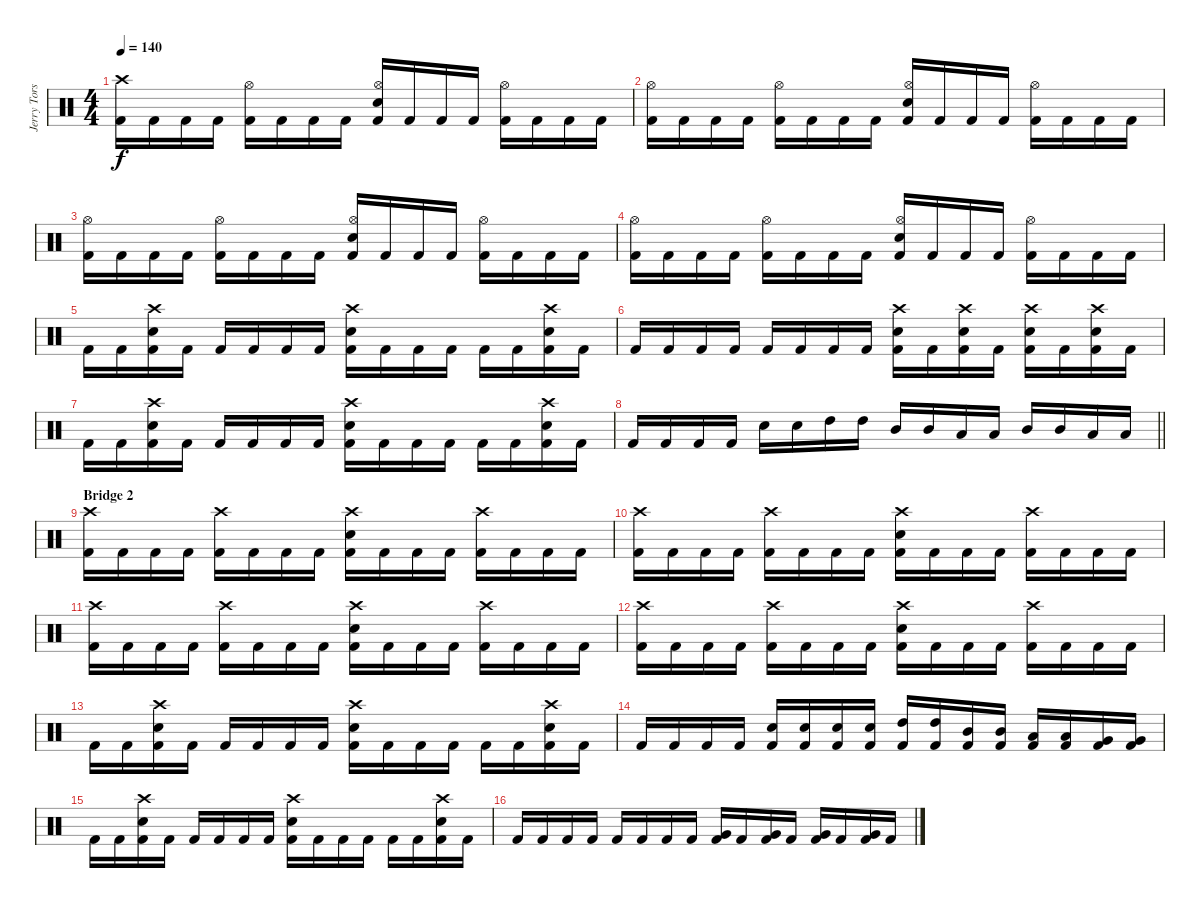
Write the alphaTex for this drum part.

\track ("Jerry Torstensson" "Jerry Tors") {instrument percussion}
\staff {score}
\articulation defaults
\ts (4 4)
\tempo 140
\clef neutral
\ks c
("Crash high (hit)" "Kick (hit) 2").16{dy f} "Kick (hit) 2".16 "Kick (hit) 2".16 "Kick (hit) 2".16 ("Hi-Hat (open)" "Kick (hit) 2").16 "Kick (hit) 2".16 "Kick (hit) 2".16 "Kick (hit) 2".16 ("Hi-Hat (open)" "Snare (hit) 2" "Kick (hit) 2").16 "Kick (hit) 2".16 "Kick (hit) 2".16 "Kick (hit) 2".16 ("Hi-Hat (open)" "Kick (hit) 2").16 "Kick (hit) 2".16 "Kick (hit) 2".16 "Kick (hit) 2".16 |
("Hi-Hat (open)" "Kick (hit) 2").16 "Kick (hit) 2".16 "Kick (hit) 2".16 "Kick (hit) 2".16 ("Hi-Hat (open)" "Kick (hit) 2").16 "Kick (hit) 2".16 "Kick (hit) 2".16 "Kick (hit) 2".16 ("Hi-Hat (open)" "Snare (hit) 2" "Kick (hit) 2").16 "Kick (hit) 2".16 "Kick (hit) 2".16 "Kick (hit) 2".16 ("Hi-Hat (open)" "Kick (hit) 2").16 "Kick (hit) 2".16 "Kick (hit) 2".16 "Kick (hit) 2".16 |
("Hi-Hat (open)" "Kick (hit) 2").16 "Kick (hit) 2".16 "Kick (hit) 2".16 "Kick (hit) 2".16 ("Hi-Hat (open)" "Kick (hit) 2").16 "Kick (hit) 2".16 "Kick (hit) 2".16 "Kick (hit) 2".16 ("Hi-Hat (open)" "Snare (hit) 2" "Kick (hit) 2").16 "Kick (hit) 2".16 "Kick (hit) 2".16 "Kick (hit) 2".16 ("Hi-Hat (open)" "Kick (hit) 2").16 "Kick (hit) 2".16 "Kick (hit) 2".16 "Kick (hit) 2".16 |
("Hi-Hat (open)" "Kick (hit) 2").16 "Kick (hit) 2".16 "Kick (hit) 2".16 "Kick (hit) 2".16 ("Hi-Hat (open)" "Kick (hit) 2").16 "Kick (hit) 2".16 "Kick (hit) 2".16 "Kick (hit) 2".16 ("Hi-Hat (open)" "Snare (hit) 2" "Kick (hit) 2").16 "Kick (hit) 2".16 "Kick (hit) 2".16 "Kick (hit) 2".16 ("Hi-Hat (open)" "Kick (hit) 2").16 "Kick (hit) 2".16 "Kick (hit) 2".16 "Kick (hit) 2".16 |
"Kick (hit) 2".16 "Kick (hit) 2".16 ("Crash high (hit)" "Snare (hit) 2" "Kick (hit) 2").16 "Kick (hit) 2".16 "Kick (hit) 2".16 "Kick (hit) 2".16 "Kick (hit) 2".16 "Kick (hit) 2".16 ("Crash high (hit)" "Snare (hit) 2" "Kick (hit) 2").16 "Kick (hit) 2".16 "Kick (hit) 2".16 "Kick (hit) 2".16 "Kick (hit) 2".16 "Kick (hit) 2".16 ("Crash high (hit)" "Snare (hit) 2" "Kick (hit) 2").16 "Kick (hit) 2".16 |
"Kick (hit) 2".16 "Kick (hit) 2".16 "Kick (hit) 2".16 "Kick (hit) 2".16 "Kick (hit) 2".16 "Kick (hit) 2".16 "Kick (hit) 2".16 "Kick (hit) 2".16 ("Crash high (hit)" "Snare (hit) 2" "Kick (hit) 2").16 "Kick (hit) 2".16 ("Crash high (hit)" "Snare (hit) 2" "Kick (hit) 2").16 "Kick (hit) 2".16 ("Crash high (hit)" "Snare (hit) 2" "Kick (hit) 2").16 "Kick (hit) 2".16 ("Crash high (hit)" "Snare (hit) 2" "Kick (hit) 2").16 "Kick (hit) 2".16 |
"Kick (hit) 2".16 "Kick (hit) 2".16 ("Crash high (hit)" "Snare (hit) 2" "Kick (hit) 2").16 "Kick (hit) 2".16 "Kick (hit) 2".16 "Kick (hit) 2".16 "Kick (hit) 2".16 "Kick (hit) 2".16 ("Crash high (hit)" "Snare (hit) 2" "Kick (hit) 2").16 "Kick (hit) 2".16 "Kick (hit) 2".16 "Kick (hit) 2".16 "Kick (hit) 2".16 "Kick (hit) 2".16 ("Crash high (hit)" "Snare (hit) 2" "Kick (hit) 2").16 "Kick (hit) 2".16 |
\barLineRight lightlight "Kick (hit) 2".16 "Kick (hit) 2".16 "Kick (hit) 2".16 "Kick (hit) 2".16 "Snare (hit) 2".16 "Snare (hit) 2".16 "High Tom (hit)".16 "High Tom (hit)".16 "Mid Tom (hit)".16 "Mid Tom (hit)".16 "Low Tom (hit)".16 "Low Tom (hit)".16 "Mid Tom (hit)".16 "Mid Tom (hit)".16 "Low Tom (hit)".16 "Low Tom (hit)".16
|
\section ("" "Bridge 2")
("Crash high (hit)" "Kick (hit) 2").16 "Kick (hit) 2".16 "Kick (hit) 2".16 "Kick (hit) 2".16 ("Crash high (hit)" "Kick (hit) 2").16 "Kick (hit) 2".16 "Kick (hit) 2".16 "Kick (hit) 2".16 ("Crash high (hit)" "Snare (hit) 2" "Kick (hit) 2").16 "Kick (hit) 2".16 "Kick (hit) 2".16 "Kick (hit) 2".16 ("Crash high (hit)" "Kick (hit) 2").16 "Kick (hit) 2".16 "Kick (hit) 2".16 "Kick (hit) 2".16 |
("Crash high (hit)" "Kick (hit) 2").16 "Kick (hit) 2".16 "Kick (hit) 2".16 "Kick (hit) 2".16 ("Crash high (hit)" "Kick (hit) 2").16 "Kick (hit) 2".16 "Kick (hit) 2".16 "Kick (hit) 2".16 ("Crash high (hit)" "Snare (hit) 2" "Kick (hit) 2").16 "Kick (hit) 2".16 "Kick (hit) 2".16 "Kick (hit) 2".16 ("Crash high (hit)" "Kick (hit) 2").16 "Kick (hit) 2".16 "Kick (hit) 2".16 "Kick (hit) 2".16 |
("Crash high (hit)" "Kick (hit) 2").16 "Kick (hit) 2".16 "Kick (hit) 2".16 "Kick (hit) 2".16 ("Crash high (hit)" "Kick (hit) 2").16 "Kick (hit) 2".16 "Kick (hit) 2".16 "Kick (hit) 2".16 ("Crash high (hit)" "Snare (hit) 2" "Kick (hit) 2").16 "Kick (hit) 2".16 "Kick (hit) 2".16 "Kick (hit) 2".16 ("Crash high (hit)" "Kick (hit) 2").16 "Kick (hit) 2".16 "Kick (hit) 2".16 "Kick (hit) 2".16 |
("Crash high (hit)" "Kick (hit) 2").16 "Kick (hit) 2".16 "Kick (hit) 2".16 "Kick (hit) 2".16 ("Crash high (hit)" "Kick (hit) 2").16 "Kick (hit) 2".16 "Kick (hit) 2".16 "Kick (hit) 2".16 ("Crash high (hit)" "Snare (hit) 2" "Kick (hit) 2").16 "Kick (hit) 2".16 "Kick (hit) 2".16 "Kick (hit) 2".16 ("Crash high (hit)" "Kick (hit) 2").16 "Kick (hit) 2".16 "Kick (hit) 2".16 "Kick (hit) 2".16 |
"Kick (hit) 2".16 "Kick (hit) 2".16 ("Crash high (hit)" "Snare (hit) 2" "Kick (hit) 2").16 "Kick (hit) 2".16 "Kick (hit) 2".16 "Kick (hit) 2".16 "Kick (hit) 2".16 "Kick (hit) 2".16 ("Crash high (hit)" "Snare (hit) 2" "Kick (hit) 2").16 "Kick (hit) 2".16 "Kick (hit) 2".16 "Kick (hit) 2".16 "Kick (hit) 2".16 "Kick (hit) 2".16 ("Crash high (hit)" "Snare (hit) 2" "Kick (hit) 2").16 "Kick (hit) 2".16 |
"Kick (hit) 2".16 "Kick (hit) 2".16 "Kick (hit) 2".16 "Kick (hit) 2".16 ("Snare (hit) 2" "Kick (hit) 2").16 ("Snare (hit) 2" "Kick (hit) 2").16 ("Snare (hit) 2" "Kick (hit) 2").16 ("Snare (hit) 2" "Kick (hit) 2").16 ("High Tom (hit)" "Kick (hit) 2").16 ("High Tom (hit)" "Kick (hit) 2").16 ("Mid Tom (hit)" "Kick (hit) 2").16 ("Mid Tom (hit)" "Kick (hit) 2").16 ("Low Tom (hit)" "Kick (hit) 2").16 ("Low Tom (hit)" "Kick (hit) 2").16 ("Very Low Tom (hit)" "Kick (hit) 2").16 ("Very Low Tom (hit)" "Kick (hit) 2").16 |
"Kick (hit) 2".16 "Kick (hit) 2".16 ("Crash high (hit)" "Snare (hit) 2" "Kick (hit) 2").16 "Kick (hit) 2".16 "Kick (hit) 2".16 "Kick (hit) 2".16 "Kick (hit) 2".16 "Kick (hit) 2".16 ("Crash high (hit)" "Snare (hit) 2" "Kick (hit) 2").16 "Kick (hit) 2".16 "Kick (hit) 2".16 "Kick (hit) 2".16 "Kick (hit) 2".16 "Kick (hit) 2".16 ("Crash high (hit)" "Snare (hit) 2" "Kick (hit) 2").16 "Kick (hit) 2".16 |
"Kick (hit) 2".16 "Kick (hit) 2".16 "Kick (hit) 2".16 "Kick (hit) 2".16 "Kick (hit) 2".16 "Kick (hit) 2".16 "Kick (hit) 2".16 "Kick (hit) 2".16 ("Very Low Tom (hit)" "Kick (hit) 2").16 "Kick (hit) 2".16 ("Very Low Tom (hit)" "Kick (hit) 2").16 "Kick (hit) 2".16 ("Very Low Tom (hit)" "Kick (hit) 2").16 "Kick (hit) 2".16 ("Very Low Tom (hit)" "Kick (hit) 2").16 "Kick (hit) 2".16
